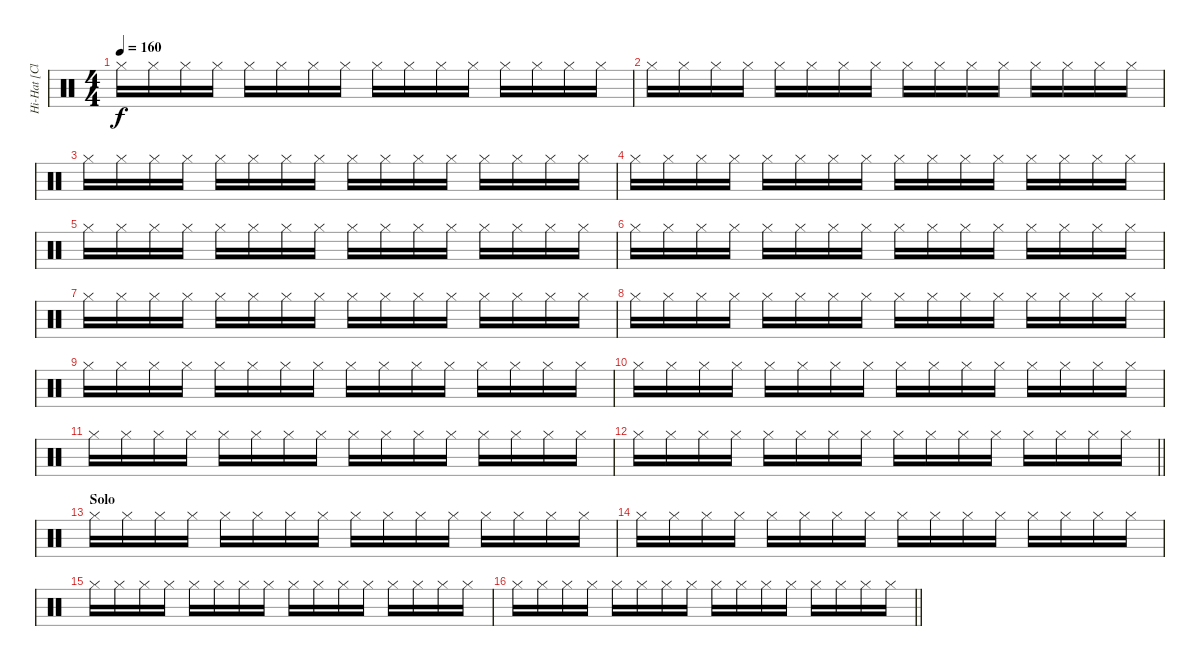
\track ("Hi-Hat [Closed]" "Hi-Hat [Cl") {instrument percussion}
\staff {score}
\articulation defaults
\ts (4 4)
\tempo 160
\clef neutral
\ks c "Hi-Hat (closed)".16{dy f} "Hi-Hat (closed)".16 "Hi-Hat (closed)".16 "Hi-Hat (closed)".16 "Hi-Hat (closed)".16 "Hi-Hat (closed)".16 "Hi-Hat (closed)".16 "Hi-Hat (closed)".16 "Hi-Hat (closed)".16 "Hi-Hat (closed)".16 "Hi-Hat (closed)".16 "Hi-Hat (closed)".16 "Hi-Hat (closed)".16 "Hi-Hat (closed)".16 "Hi-Hat (closed)".16 "Hi-Hat (closed)".16
|
"Hi-Hat (closed)".16 "Hi-Hat (closed)".16 "Hi-Hat (closed)".16 "Hi-Hat (closed)".16 "Hi-Hat (closed)".16 "Hi-Hat (closed)".16 "Hi-Hat (closed)".16 "Hi-Hat (closed)".16 "Hi-Hat (closed)".16 "Hi-Hat (closed)".16 "Hi-Hat (closed)".16 "Hi-Hat (closed)".16 "Hi-Hat (closed)".16 "Hi-Hat (closed)".16 "Hi-Hat (closed)".16 "Hi-Hat (closed)".16 |
"Hi-Hat (closed)".16 "Hi-Hat (closed)".16 "Hi-Hat (closed)".16 "Hi-Hat (closed)".16 "Hi-Hat (closed)".16 "Hi-Hat (closed)".16 "Hi-Hat (closed)".16 "Hi-Hat (closed)".16 "Hi-Hat (closed)".16 "Hi-Hat (closed)".16 "Hi-Hat (closed)".16 "Hi-Hat (closed)".16 "Hi-Hat (closed)".16 "Hi-Hat (closed)".16 "Hi-Hat (closed)".16 "Hi-Hat (closed)".16 |
"Hi-Hat (closed)".16 "Hi-Hat (closed)".16 "Hi-Hat (closed)".16 "Hi-Hat (closed)".16 "Hi-Hat (closed)".16 "Hi-Hat (closed)".16 "Hi-Hat (closed)".16 "Hi-Hat (closed)".16 "Hi-Hat (closed)".16 "Hi-Hat (closed)".16 "Hi-Hat (closed)".16 "Hi-Hat (closed)".16 "Hi-Hat (closed)".16 "Hi-Hat (closed)".16 "Hi-Hat (closed)".16 "Hi-Hat (closed)".16 |
"Hi-Hat (closed)".16 "Hi-Hat (closed)".16 "Hi-Hat (closed)".16 "Hi-Hat (closed)".16 "Hi-Hat (closed)".16 "Hi-Hat (closed)".16 "Hi-Hat (closed)".16 "Hi-Hat (closed)".16 "Hi-Hat (closed)".16 "Hi-Hat (closed)".16 "Hi-Hat (closed)".16 "Hi-Hat (closed)".16 "Hi-Hat (closed)".16 "Hi-Hat (closed)".16 "Hi-Hat (closed)".16 "Hi-Hat (closed)".16 |
"Hi-Hat (closed)".16 "Hi-Hat (closed)".16 "Hi-Hat (closed)".16 "Hi-Hat (closed)".16 "Hi-Hat (closed)".16 "Hi-Hat (closed)".16 "Hi-Hat (closed)".16 "Hi-Hat (closed)".16 "Hi-Hat (closed)".16 "Hi-Hat (closed)".16 "Hi-Hat (closed)".16 "Hi-Hat (closed)".16 "Hi-Hat (closed)".16 "Hi-Hat (closed)".16 "Hi-Hat (closed)".16 "Hi-Hat (closed)".16 |
"Hi-Hat (closed)".16 "Hi-Hat (closed)".16 "Hi-Hat (closed)".16 "Hi-Hat (closed)".16 "Hi-Hat (closed)".16 "Hi-Hat (closed)".16 "Hi-Hat (closed)".16 "Hi-Hat (closed)".16 "Hi-Hat (closed)".16 "Hi-Hat (closed)".16 "Hi-Hat (closed)".16 "Hi-Hat (closed)".16 "Hi-Hat (closed)".16 "Hi-Hat (closed)".16 "Hi-Hat (closed)".16 "Hi-Hat (closed)".16 |
"Hi-Hat (closed)".16 "Hi-Hat (closed)".16 "Hi-Hat (closed)".16 "Hi-Hat (closed)".16 "Hi-Hat (closed)".16 "Hi-Hat (closed)".16 "Hi-Hat (closed)".16 "Hi-Hat (closed)".16 "Hi-Hat (closed)".16 "Hi-Hat (closed)".16 "Hi-Hat (closed)".16 "Hi-Hat (closed)".16 "Hi-Hat (closed)".16 "Hi-Hat (closed)".16 "Hi-Hat (closed)".16 "Hi-Hat (closed)".16 |
"Hi-Hat (closed)".16 "Hi-Hat (closed)".16 "Hi-Hat (closed)".16 "Hi-Hat (closed)".16 "Hi-Hat (closed)".16 "Hi-Hat (closed)".16 "Hi-Hat (closed)".16 "Hi-Hat (closed)".16 "Hi-Hat (closed)".16 "Hi-Hat (closed)".16 "Hi-Hat (closed)".16 "Hi-Hat (closed)".16 "Hi-Hat (closed)".16 "Hi-Hat (closed)".16 "Hi-Hat (closed)".16 "Hi-Hat (closed)".16 |
"Hi-Hat (closed)".16 "Hi-Hat (closed)".16 "Hi-Hat (closed)".16 "Hi-Hat (closed)".16 "Hi-Hat (closed)".16 "Hi-Hat (closed)".16 "Hi-Hat (closed)".16 "Hi-Hat (closed)".16 "Hi-Hat (closed)".16 "Hi-Hat (closed)".16 "Hi-Hat (closed)".16 "Hi-Hat (closed)".16 "Hi-Hat (closed)".16 "Hi-Hat (closed)".16 "Hi-Hat (closed)".16 "Hi-Hat (closed)".16 |
"Hi-Hat (closed)".16 "Hi-Hat (closed)".16 "Hi-Hat (closed)".16 "Hi-Hat (closed)".16 "Hi-Hat (closed)".16 "Hi-Hat (closed)".16 "Hi-Hat (closed)".16 "Hi-Hat (closed)".16 "Hi-Hat (closed)".16 "Hi-Hat (closed)".16 "Hi-Hat (closed)".16 "Hi-Hat (closed)".16 "Hi-Hat (closed)".16 "Hi-Hat (closed)".16 "Hi-Hat (closed)".16 "Hi-Hat (closed)".16 |
\barLineRight lightlight "Hi-Hat (closed)".16 "Hi-Hat (closed)".16 "Hi-Hat (closed)".16 "Hi-Hat (closed)".16 "Hi-Hat (closed)".16 "Hi-Hat (closed)".16 "Hi-Hat (closed)".16 "Hi-Hat (closed)".16 "Hi-Hat (closed)".16 "Hi-Hat (closed)".16 "Hi-Hat (closed)".16 "Hi-Hat (closed)".16 "Hi-Hat (closed)".16 "Hi-Hat (closed)".16 "Hi-Hat (closed)".16 "Hi-Hat (closed)".16
|
\section ("" "Solo")
"Hi-Hat (closed)".16 "Hi-Hat (closed)".16 "Hi-Hat (closed)".16 "Hi-Hat (closed)".16 "Hi-Hat (closed)".16 "Hi-Hat (closed)".16 "Hi-Hat (closed)".16 "Hi-Hat (closed)".16 "Hi-Hat (closed)".16 "Hi-Hat (closed)".16 "Hi-Hat (closed)".16 "Hi-Hat (closed)".16 "Hi-Hat (closed)".16 "Hi-Hat (closed)".16 "Hi-Hat (closed)".16 "Hi-Hat (closed)".16 |
"Hi-Hat (closed)".16 "Hi-Hat (closed)".16 "Hi-Hat (closed)".16 "Hi-Hat (closed)".16 "Hi-Hat (closed)".16 "Hi-Hat (closed)".16 "Hi-Hat (closed)".16 "Hi-Hat (closed)".16 "Hi-Hat (closed)".16 "Hi-Hat (closed)".16 "Hi-Hat (closed)".16 "Hi-Hat (closed)".16 "Hi-Hat (closed)".16 "Hi-Hat (closed)".16 "Hi-Hat (closed)".16 "Hi-Hat (closed)".16 |
"Hi-Hat (closed)".16 "Hi-Hat (closed)".16 "Hi-Hat (closed)".16 "Hi-Hat (closed)".16 "Hi-Hat (closed)".16 "Hi-Hat (closed)".16 "Hi-Hat (closed)".16 "Hi-Hat (closed)".16 "Hi-Hat (closed)".16 "Hi-Hat (closed)".16 "Hi-Hat (closed)".16 "Hi-Hat (closed)".16 "Hi-Hat (closed)".16 "Hi-Hat (closed)".16 "Hi-Hat (closed)".16 "Hi-Hat (closed)".16 |
\barLineRight lightlight "Hi-Hat (closed)".16 "Hi-Hat (closed)".16 "Hi-Hat (closed)".16 "Hi-Hat (closed)".16 "Hi-Hat (closed)".16 "Hi-Hat (closed)".16 "Hi-Hat (closed)".16 "Hi-Hat (closed)".16 "Hi-Hat (closed)".16 "Hi-Hat (closed)".16 "Hi-Hat (closed)".16 "Hi-Hat (closed)".16 "Hi-Hat (closed)".16 "Hi-Hat (closed)".16 "Hi-Hat (closed)".16 "Hi-Hat (closed)".16
